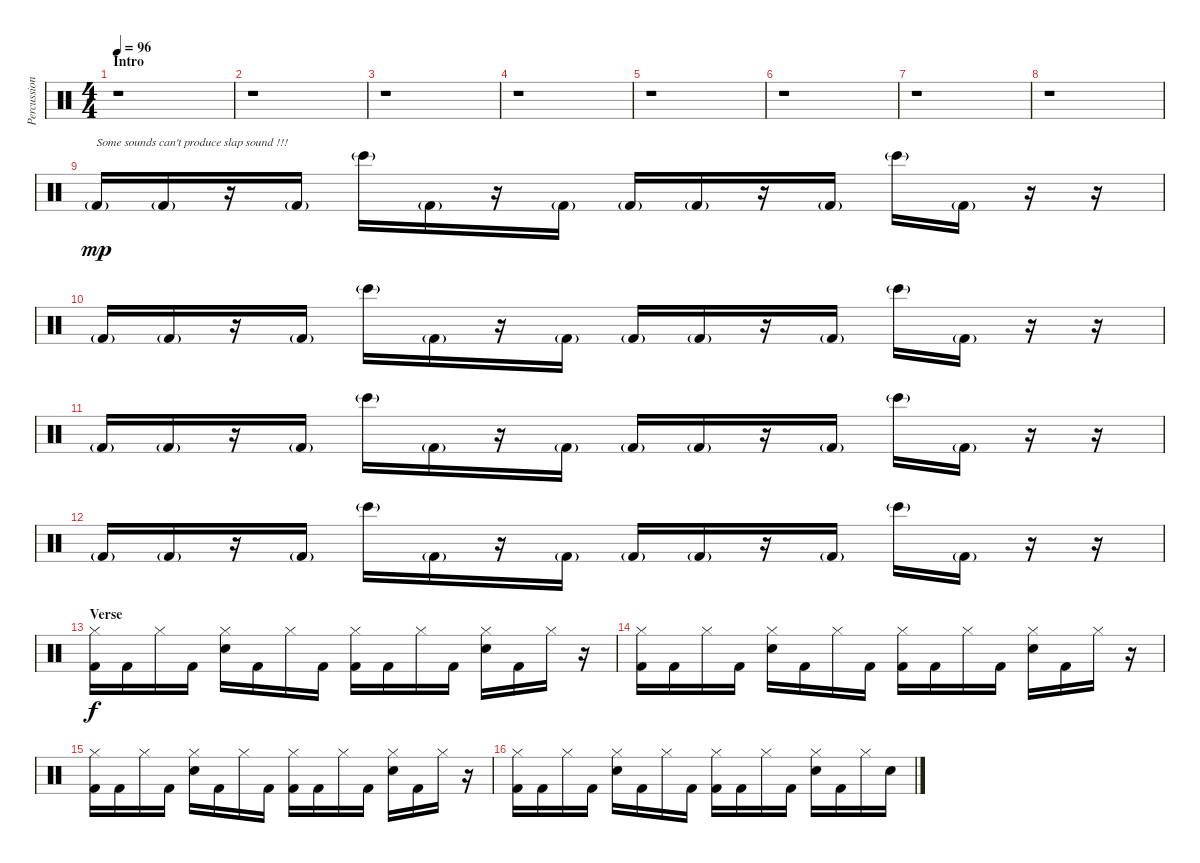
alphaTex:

\track ("Percussions" "Percussion") {instrument percussion}
\staff {score}
\articulation defaults
\ts (4 4)
\section ("" "Intro")
\tempo 96
\clef neutral
\ks c
r.1{dy mp} |
r.1 |
r.1 |
r.1 |
r.1 |
r.1 |
r.1 |
r.1 |
"Kick (hit) 2"{g}.16{txt "Some sounds can't produce slap sound !!!"} "Kick (hit) 2"{g}.16 r.16 "Kick (hit) 2"{g}.16 "Bongo High (hit)"{g}.16 "Kick (hit) 2"{g}.16 r.16 "Kick (hit) 2"{g}.16 "Kick (hit) 2"{g}.16 "Kick (hit) 2"{g}.16 r.16 "Kick (hit) 2"{g}.16 "Bongo High (hit)"{g}.16 "Kick (hit) 2"{g}.16 r.16 r.16 |
"Kick (hit) 2"{g}.16 "Kick (hit) 2"{g}.16 r.16 "Kick (hit) 2"{g}.16 "Bongo High (hit)"{g}.16 "Kick (hit) 2"{g}.16 r.16 "Kick (hit) 2"{g}.16 "Kick (hit) 2"{g}.16 "Kick (hit) 2"{g}.16 r.16 "Kick (hit) 2"{g}.16 "Bongo High (hit)"{g}.16 "Kick (hit) 2"{g}.16 r.16 r.16 |
"Kick (hit) 2"{g}.16 "Kick (hit) 2"{g}.16 r.16 "Kick (hit) 2"{g}.16 "Bongo High (hit)"{g}.16 "Kick (hit) 2"{g}.16 r.16 "Kick (hit) 2"{g}.16 "Kick (hit) 2"{g}.16 "Kick (hit) 2"{g}.16 r.16 "Kick (hit) 2"{g}.16 "Bongo High (hit)"{g}.16 "Kick (hit) 2"{g}.16 r.16 r.16 |
"Kick (hit) 2"{g}.16 "Kick (hit) 2"{g}.16 r.16 "Kick (hit) 2"{g}.16 "Bongo High (hit)"{g}.16 "Kick (hit) 2"{g}.16 r.16 "Kick (hit) 2"{g}.16 "Kick (hit) 2"{g}.16 "Kick (hit) 2"{g}.16 r.16 "Kick (hit) 2"{g}.16 "Bongo High (hit)"{g}.16 "Kick (hit) 2"{g}.16 r.16 r.16 |
\section ("" "Verse")
("Hi-Hat (closed)" "Kick (hit) 2").16{dy f} "Kick (hit) 2".16 "Hi-Hat (closed)".16 "Kick (hit) 2".16 ("Hi-Hat (closed)" "Snare (hit) 2").16 "Kick (hit) 2".16 "Hi-Hat (closed)".16 "Kick (hit) 2".16 ("Hi-Hat (closed)" "Kick (hit) 2").16 "Kick (hit) 2".16 "Hi-Hat (closed)".16 "Kick (hit) 2".16 ("Hi-Hat (closed)" "Snare (hit) 2").16 "Kick (hit) 2".16 "Hi-Hat (closed)".16 r.16 |
("Hi-Hat (closed)" "Kick (hit) 2").16 "Kick (hit) 2".16 "Hi-Hat (closed)".16 "Kick (hit) 2".16 ("Hi-Hat (closed)" "Snare (hit) 2").16 "Kick (hit) 2".16 "Hi-Hat (closed)".16 "Kick (hit) 2".16 ("Hi-Hat (closed)" "Kick (hit) 2").16 "Kick (hit) 2".16 "Hi-Hat (closed)".16 "Kick (hit) 2".16 ("Hi-Hat (closed)" "Snare (hit) 2").16 "Kick (hit) 2".16 "Hi-Hat (closed)".16 r.16 |
("Hi-Hat (closed)" "Kick (hit) 2").16 "Kick (hit) 2".16 "Hi-Hat (closed)".16 "Kick (hit) 2".16 ("Hi-Hat (closed)" "Snare (hit) 2").16 "Kick (hit) 2".16 "Hi-Hat (closed)".16 "Kick (hit) 2".16 ("Hi-Hat (closed)" "Kick (hit) 2").16 "Kick (hit) 2".16 "Hi-Hat (closed)".16 "Kick (hit) 2".16 ("Hi-Hat (closed)" "Snare (hit) 2").16 "Kick (hit) 2".16 "Hi-Hat (closed)".16 r.16 |
("Hi-Hat (closed)" "Kick (hit) 2").16 "Kick (hit) 2".16 "Hi-Hat (closed)".16 "Kick (hit) 2".16 ("Hi-Hat (closed)" "Snare (hit) 2").16 "Kick (hit) 2".16 "Hi-Hat (closed)".16 "Kick (hit) 2".16 ("Hi-Hat (closed)" "Kick (hit) 2").16 "Kick (hit) 2".16 "Hi-Hat (closed)".16 "Kick (hit) 2".16 ("Hi-Hat (closed)" "Snare (hit) 2").16 "Kick (hit) 2".16 "Hi-Hat (closed)".16 "Snare (hit) 2".16
